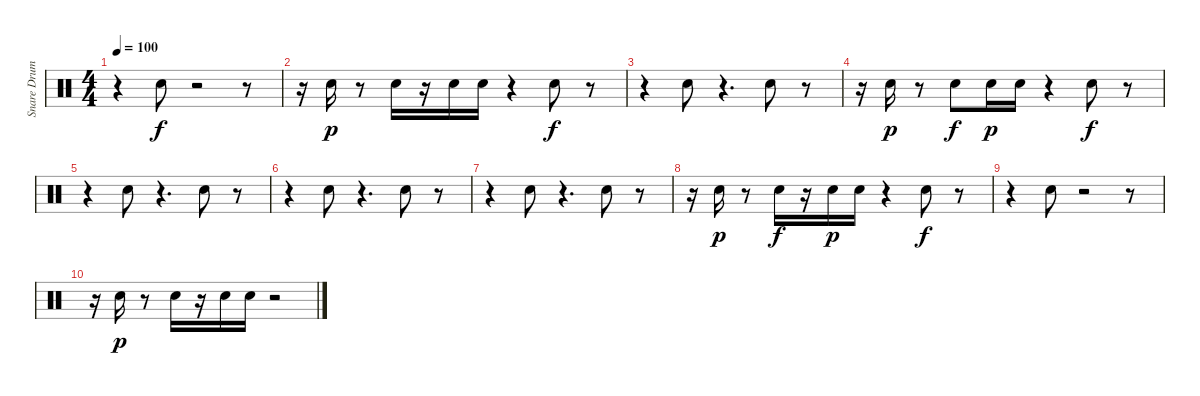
\track ("Snare Drum" "Snare Drum") {instrument percussion}
\staff {score}
\articulation defaults
\ts (4 4)
\tempo 100
\clef neutral
\ks c
r.4{dy f} "Snare (hit) 2".8 r.2 r.8 |
r.16 "Snare (hit) 2".16{dy p} r.8 "Snare (hit) 2".16 r.16 "Snare (hit) 2".16 "Snare (hit) 2".16 r.4 "Snare (hit) 2".8{dy f} r.8 |
r.4 "Snare (hit) 2".8 r.4{d} "Snare (hit) 2".8 r.8 |
r.16 "Snare (hit) 2".16{dy p} r.8 "Snare (hit) 2".8{dy f} "Snare (hit) 2".16{dy p} "Snare (hit) 2".16 r.4 "Snare (hit) 2".8{dy f} r.8 |
r.4 "Snare (hit) 2".8 r.4{d} "Snare (hit) 2".8 r.8 |
r.4 "Snare (hit) 2".8 r.4{d} "Snare (hit) 2".8 r.8 |
r.4 "Snare (hit) 2".8 r.4{d} "Snare (hit) 2".8 r.8 |
r.16 "Snare (hit) 2".16{dy p} r.8 "Snare (hit) 2".16{dy f} r.16 "Snare (hit) 2".16{dy p} "Snare (hit) 2".16 r.4 "Snare (hit) 2".8{dy f} r.8 |
r.4 "Snare (hit) 2".8 r.2 r.8 |
r.16 "Snare (hit) 2".16{dy p} r.8 "Snare (hit) 2".16 r.16 "Snare (hit) 2".16 "Snare (hit) 2".16 r.2
